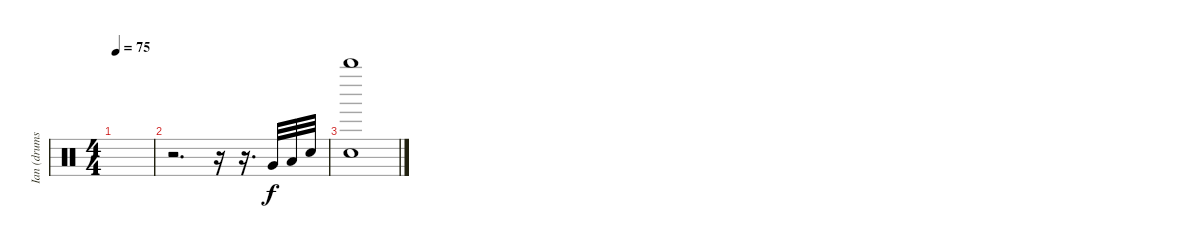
\track ("Ian (drums)" "Ian (drums") {instrument percussion}
\staff {score}
\articulation defaults
\ts (4 4)
\tempo 75
\clef neutral
\ks c
|
r.2{d} r.16 r.16{d} "Very Low Tom (hit)".32 "Low Floor Tom (hit)".32 "Electric Snare (hit)".32 |
("Whistle high (hit)" "Snare (hit)").1
